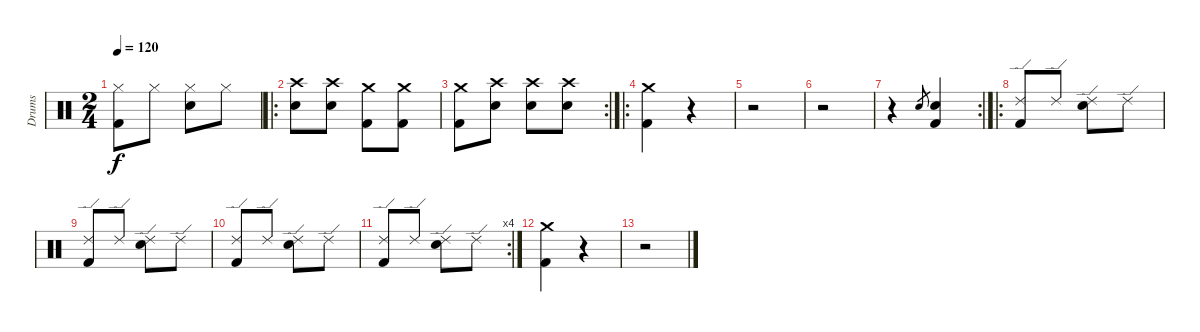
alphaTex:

\track ("Drums" "Drums") {instrument percussion}
\staff {score}
\articulation defaults
\ts (2 4)
\tempo 120
\clef neutral
\ks c
("Kick (hit) 2" "Hi-Hat (closed)").8{dy f} "Hi-Hat (closed)".8 ("Electric Snare (hit)" "Hi-Hat (closed)").8 "Hi-Hat (closed)".8 |
\ro
("Electric Snare (hit)" "Crash high (hit)").8 ("Electric Snare (hit)" "Crash high (hit)").8 ("Kick (hit) 2" "Crash medium (hit)").8 ("Kick (hit) 2" "Crash medium (hit)").8 |
\rc 2
("Kick (hit) 2" "Crash medium (hit)").8 ("Electric Snare (hit)" "Crash high (hit)").8 ("Electric Snare (hit)" "Crash high (hit)").8 ("Electric Snare (hit)" "Crash high (hit)").8 |
\ro
("Kick (hit) 2" "Crash medium (hit)").4 r.4 |
r.2 |
r.2 |
\rc 2
r.4 "Electric Snare (hit)".8{gr} ("Electric Snare (hit)" "Kick (hit) 2").4 |
\ro
("Kick (hit) 2" "Ride (edge) 2").8 "Ride (edge) 2".8 ("Electric Snare (hit)" "Ride (edge) 2").8 "Ride (edge) 2".8 |
("Kick (hit) 2" "Ride (edge) 2").8 "Ride (edge) 2".8 ("Electric Snare (hit)" "Ride (edge) 2").8 "Ride (edge) 2".8 |
("Kick (hit) 2" "Ride (edge) 2").8 "Ride (edge) 2".8 ("Electric Snare (hit)" "Ride (edge) 2").8 "Ride (edge) 2".8 |
\rc 4
("Kick (hit) 2" "Ride (edge) 2").8 "Ride (edge) 2".8 ("Electric Snare (hit)" "Ride (edge) 2").8 "Ride (edge) 2".8 |
("Kick (hit) 2" "Crash medium (hit)").4 r.4 |
r.2
